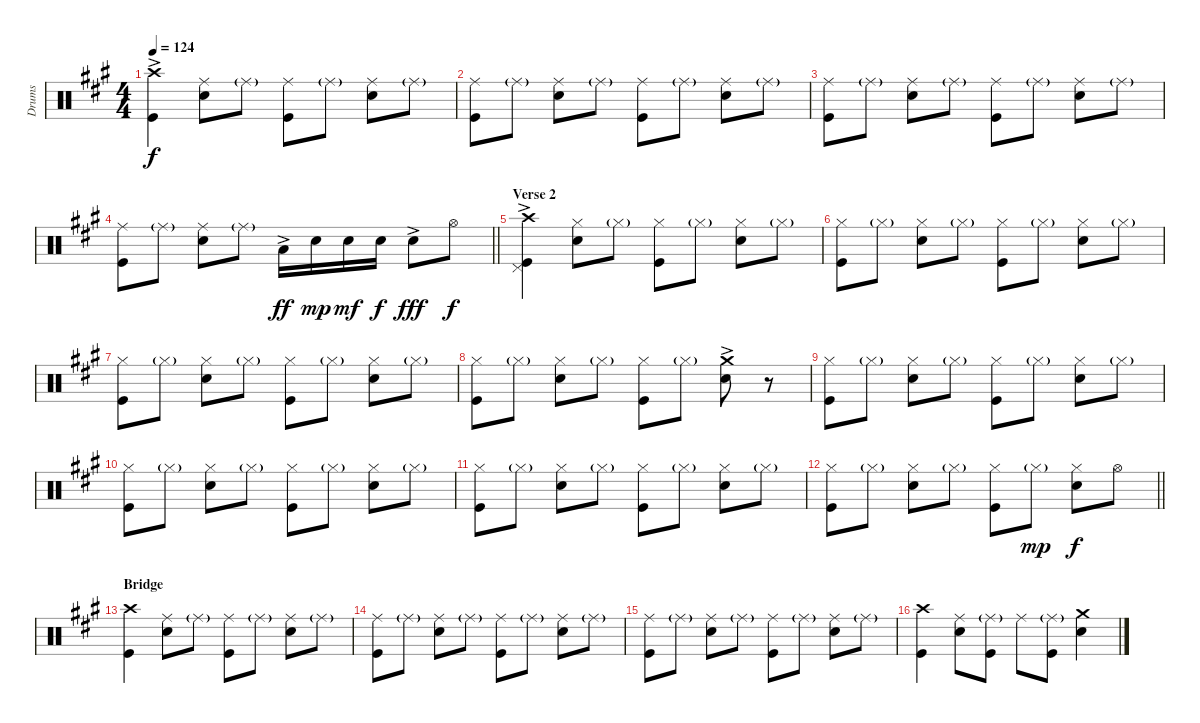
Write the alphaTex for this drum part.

\track ("Drums" "Drums") {instrument percussion}
\staff {score}
\articulation defaults
\ts (4 4)
\tempo 124
\clef neutral
\ks a
("Crash high (hit)"{ac} "Kick (hit)"{ac}).4{dy f} ("Ride (middle)" "Snare (hit) 2").8 "Ride (middle)"{g}.8 ("Ride (middle)" "Kick (hit)").8 "Ride (middle)"{g}.8 ("Ride (middle)" "Snare (hit) 2").8 "Ride (middle)"{g}.8 |
("Ride (middle)" "Kick (hit)").8 "Ride (middle)"{g}.8 ("Ride (middle)" "Snare (hit) 2").8 "Ride (middle)"{g}.8 ("Ride (middle)" "Kick (hit)").8 "Ride (middle)"{g}.8 ("Ride (middle)" "Snare (hit) 2").8 "Ride (middle)"{g}.8 |
("Ride (middle)" "Kick (hit)").8 "Ride (middle)"{g}.8 ("Ride (middle)" "Snare (hit) 2").8 "Ride (middle)"{g}.8 ("Ride (middle)" "Kick (hit)").8 "Ride (middle)"{g}.8 ("Ride (middle)" "Snare (hit) 2").8 "Ride (middle)"{g}.8 |
\barLineRight lightlight
("Ride (middle)" "Kick (hit)").8 "Ride (middle)"{g}.8 ("Ride (middle)" "Snare (hit) 2").8 "Ride (middle)"{g}.8 "Low Tom (hit)"{ac}.16{dy ff} "Snare (hit) 2".16{dy mp} "Snare (hit) 2".16{dy mf} "Snare (hit) 2".16{dy f} "Snare (hit) 2"{ac}.8{dy fff} "Hi-Hat (open)".8{dy f} |
\section ("" "Verse 2")
("Crash high (hit)"{ac} "Pedal Hi-Hat (hit)" "Kick (hit)"{ac}).4 ("Hi-Hat (closed)" "Snare (hit) 2").8 "Hi-Hat (closed)"{g}.8 ("Hi-Hat (closed)" "Kick (hit)").8 "Hi-Hat (closed)"{g}.8 ("Hi-Hat (closed)" "Snare (hit) 2").8 "Hi-Hat (closed)"{g}.8 |
("Kick (hit)" "Hi-Hat (closed)").8 "Hi-Hat (closed)"{g}.8 ("Snare (hit) 2" "Hi-Hat (closed)").8 "Hi-Hat (closed)"{g}.8 ("Kick (hit)" "Hi-Hat (closed)").8 "Hi-Hat (closed)"{g}.8 ("Snare (hit) 2" "Hi-Hat (closed)").8 "Hi-Hat (closed)"{g}.8 |
("Kick (hit)" "Hi-Hat (closed)").8 "Hi-Hat (closed)"{g}.8 ("Snare (hit) 2" "Hi-Hat (closed)").8 "Hi-Hat (closed)"{g}.8 ("Kick (hit)" "Hi-Hat (closed)").8 "Hi-Hat (closed)"{g}.8 ("Snare (hit) 2" "Hi-Hat (closed)").8 "Hi-Hat (closed)"{g}.8 |
("Kick (hit)" "Hi-Hat (closed)").8 "Hi-Hat (closed)"{g}.8 ("Snare (hit) 2" "Hi-Hat (closed)").8 "Hi-Hat (closed)"{g}.8 ("Kick (hit)" "Hi-Hat (closed)").8 "Hi-Hat (closed)"{g}.8 ("Crash medium (hit)"{ac} "Snare (hit) 2"{ac}).8 r.8 |
("Kick (hit)" "Hi-Hat (closed)").8 "Hi-Hat (closed)"{g}.8 ("Snare (hit) 2" "Hi-Hat (closed)").8 "Hi-Hat (closed)"{g}.8 ("Kick (hit)" "Hi-Hat (closed)").8 "Hi-Hat (closed)"{g}.8 ("Snare (hit) 2" "Hi-Hat (closed)").8 "Hi-Hat (closed)"{g}.8 |
("Kick (hit)" "Hi-Hat (closed)").8 "Hi-Hat (closed)"{g}.8 ("Snare (hit) 2" "Hi-Hat (closed)").8 "Hi-Hat (closed)"{g}.8 ("Kick (hit)" "Hi-Hat (closed)").8 "Hi-Hat (closed)"{g}.8 ("Snare (hit) 2" "Hi-Hat (closed)").8 "Hi-Hat (closed)"{g}.8 |
("Kick (hit)" "Hi-Hat (closed)").8 "Hi-Hat (closed)"{g}.8 ("Snare (hit) 2" "Hi-Hat (closed)").8 "Hi-Hat (closed)"{g}.8 ("Kick (hit)" "Hi-Hat (closed)").8 "Hi-Hat (closed)"{g}.8 ("Snare (hit) 2" "Hi-Hat (closed)").8 "Hi-Hat (closed)"{g}.8 |
\barLineRight lightlight
("Kick (hit)" "Hi-Hat (closed)").8 "Hi-Hat (closed)"{g}.8 ("Snare (hit) 2" "Hi-Hat (closed)").8 "Hi-Hat (closed)"{g}.8 ("Kick (hit)" "Hi-Hat (closed)").8 "Hi-Hat (closed)"{g}.8{dy mp} ("Snare (hit) 2" "Hi-Hat (closed)").8{dy f} "Hi-Hat (open)".8 |
\section ("" "Bridge")
("Crash high (hit)" "Kick (hit)").4 ("Ride (middle)" "Snare (hit) 2").8 "Ride (middle)"{g}.8 ("Ride (middle)" "Kick (hit)").8 "Ride (middle)"{g}.8 ("Ride (middle)" "Snare (hit) 2").8 "Ride (middle)"{g}.8 |
("Ride (middle)" "Kick (hit)").8 "Ride (middle)"{g}.8 ("Ride (middle)" "Snare (hit) 2").8 "Ride (middle)"{g}.8 ("Ride (middle)" "Kick (hit)").8 "Ride (middle)"{g}.8 ("Ride (middle)" "Snare (hit) 2").8 "Ride (middle)"{g}.8 |
("Ride (middle)" "Kick (hit)").8 "Ride (middle)"{g}.8 ("Ride (middle)" "Snare (hit) 2").8 "Ride (middle)"{g}.8 ("Ride (middle)" "Kick (hit)").8 "Ride (middle)"{g}.8 ("Ride (middle)" "Snare (hit) 2").8 "Ride (middle)"{g}.8 |
("Kick (hit)" "Crash high (hit)").4 ("Ride (middle)" "Snare (hit) 2").8 ("Ride (middle)"{g} "Kick (hit)").8 "Ride (middle)".8 ("Ride (middle)"{g} "Kick (hit)").8 ("Snare (hit) 2" "Crash medium (hit)").4
